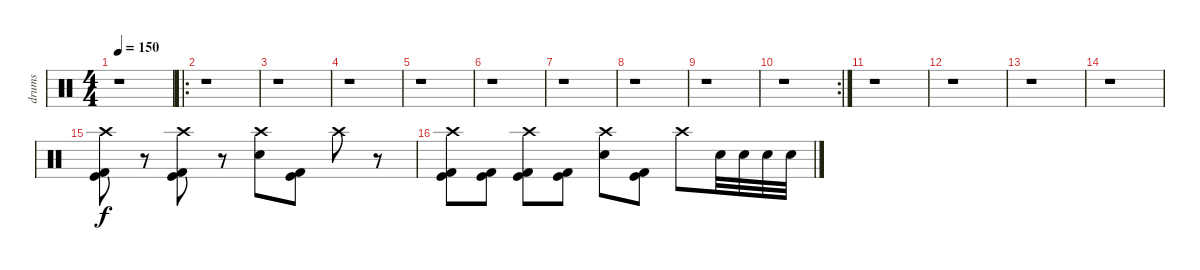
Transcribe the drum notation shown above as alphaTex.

\track ("drums" "drums") {instrument percussion}
\staff {score}
\articulation defaults
\ts (4 4)
\tempo 150
\clef neutral
\ks c
r.1{dy f} |
\ro
r.1 |
r.1 |
r.1 |
r.1 |
r.1 |
r.1 |
r.1 |
r.1 |
\rc 2
r.1 |
r.1 |
r.1 |
r.1 |
r.1 |
("Kick (hit)" "Kick (hit) 2" "Crash high (hit)").8 r.8 ("Kick (hit)" "Kick (hit) 2" "Crash high (hit)").8 r.8 ("Electric Snare (hit)" "Crash high (hit)").8 ("Kick (hit)" "Kick (hit) 2").8 "Crash high (hit)".8 r.8 |
("Kick (hit)" "Kick (hit) 2" "Crash high (hit)").8 ("Kick (hit)" "Kick (hit) 2").8 ("Kick (hit)" "Kick (hit) 2" "Crash high (hit)").8 ("Kick (hit)" "Kick (hit) 2").8 ("Electric Snare (hit)" "Crash high (hit)").8 ("Kick (hit)" "Kick (hit) 2").8 "Crash high (hit)".8 "Electric Snare (hit)".32 "Electric Snare (hit)".32 "Electric Snare (hit)".32 "Electric Snare (hit)".32
